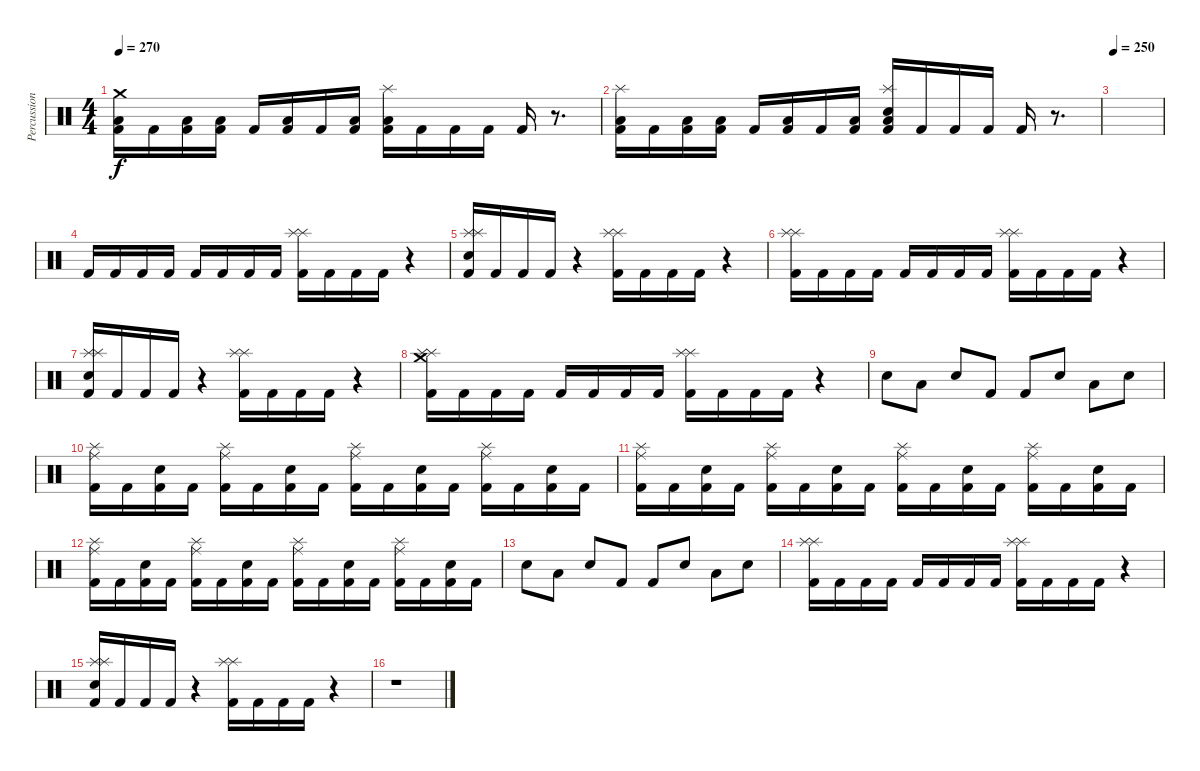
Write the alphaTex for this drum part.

\track ("Percussions" "Percussion") {instrument percussion}
\staff {score}
\articulation defaults
\ts (4 4)
\tempo 270
\clef neutral
\ks c
("Crash medium (hit)" "Low Floor Tom (hit)" "Kick (hit) 2").16{dy f} "Kick (hit) 2".16 ("Low Floor Tom (hit)" "Kick (hit) 2").16 ("Low Floor Tom (hit)" "Kick (hit) 2").16 "Kick (hit) 2".16 ("Low Floor Tom (hit)" "Kick (hit) 2").16 "Kick (hit) 2".16 ("Low Floor Tom (hit)" "Kick (hit) 2").16 ("Splash (hit)" "Low Floor Tom (hit)" "Kick (hit) 2").16 "Kick (hit) 2".16 "Kick (hit) 2".16 "Kick (hit) 2".16 "Kick (hit) 2".16 r.8{d} |
("Splash (hit)" "Low Floor Tom (hit)" "Kick (hit) 2").16 "Kick (hit) 2".16 ("Low Floor Tom (hit)" "Kick (hit) 2").16 ("Low Floor Tom (hit)" "Kick (hit) 2").16 "Kick (hit) 2".16 ("Low Floor Tom (hit)" "Kick (hit) 2").16 "Kick (hit) 2".16 ("Low Floor Tom (hit)" "Kick (hit) 2").16 ("Splash (hit)" "Electric Snare (hit)" "Low Floor Tom (hit)" "Kick (hit) 2").16 "Kick (hit) 2".16 "Kick (hit) 2".16 "Kick (hit) 2".16 "Kick (hit) 2".16 r.8{d} |
\tempo 250
|
"Kick (hit) 2".16 "Kick (hit) 2".16 "Kick (hit) 2".16 "Kick (hit) 2".16 "Kick (hit) 2".16 "Kick (hit) 2".16 "Kick (hit) 2".16 "Kick (hit) 2".16 ("Splash (hit)" "Splash (hit)" "Kick (hit) 2").16 "Kick (hit) 2".16 "Kick (hit) 2".16 "Kick (hit) 2".16 r.4 |
("Splash (hit)" "Splash (hit)" "Electric Snare (hit)" "Kick (hit) 2").16 "Kick (hit) 2".16 "Kick (hit) 2".16 "Kick (hit) 2".16 r.4 ("Splash (hit)" "Splash (hit)" "Kick (hit) 2").16 "Kick (hit) 2".16 "Kick (hit) 2".16 "Kick (hit) 2".16 r.4 |
("Splash (hit)" "Splash (hit)" "Kick (hit) 2").16 "Kick (hit) 2".16 "Kick (hit) 2".16 "Kick (hit) 2".16 "Kick (hit) 2".16 "Kick (hit) 2".16 "Kick (hit) 2".16 "Kick (hit) 2".16 ("Splash (hit)" "Splash (hit)" "Kick (hit) 2").16 "Kick (hit) 2".16 "Kick (hit) 2".16 "Kick (hit) 2".16 r.4 |
("Splash (hit)" "Splash (hit)" "Electric Snare (hit)" "Kick (hit) 2").16 "Kick (hit) 2".16 "Kick (hit) 2".16 "Kick (hit) 2".16 r.4 ("Splash (hit)" "Splash (hit)" "Kick (hit) 2").16 "Kick (hit) 2".16 "Kick (hit) 2".16 "Kick (hit) 2".16 r.4 |
("Splash (hit)" "Splash (hit)" "Crash medium (hit)" "Kick (hit) 2").16 "Kick (hit) 2".16 "Kick (hit) 2".16 "Kick (hit) 2".16 "Kick (hit) 2".16 "Kick (hit) 2".16 "Kick (hit) 2".16 "Kick (hit) 2".16 ("Splash (hit)" "Splash (hit)" "Kick (hit) 2").16 "Kick (hit) 2".16 "Kick (hit) 2".16 "Kick (hit) 2".16 r.4 |
"Electric Snare (hit)".8 "Low Floor Tom (hit)".8 "Electric Snare (hit)".8 "Kick (hit) 2".8 "Kick (hit) 2".8 "Electric Snare (hit)".8 "Low Floor Tom (hit)".8 "Electric Snare (hit)".8 |
("Splash (hit)" "Ride (middle)" "Kick (hit) 2").16 "Kick (hit) 2".16 ("Electric Snare (hit)" "Kick (hit) 2").16 "Kick (hit) 2".16 ("Splash (hit)" "Ride (middle)" "Kick (hit) 2").16 "Kick (hit) 2".16 ("Electric Snare (hit)" "Kick (hit) 2").16 "Kick (hit) 2".16 ("Splash (hit)" "Ride (middle)" "Kick (hit) 2").16 "Kick (hit) 2".16 ("Electric Snare (hit)" "Kick (hit) 2").16 "Kick (hit) 2".16 ("Splash (hit)" "Ride (middle)" "Kick (hit) 2").16 "Kick (hit) 2".16 ("Electric Snare (hit)" "Kick (hit) 2").16 "Kick (hit) 2".16 |
("Splash (hit)" "Ride (middle)" "Kick (hit) 2").16 "Kick (hit) 2".16 ("Electric Snare (hit)" "Kick (hit) 2").16 "Kick (hit) 2".16 ("Splash (hit)" "Ride (middle)" "Kick (hit) 2").16 "Kick (hit) 2".16 ("Electric Snare (hit)" "Kick (hit) 2").16 "Kick (hit) 2".16 ("Splash (hit)" "Ride (middle)" "Kick (hit) 2").16 "Kick (hit) 2".16 ("Electric Snare (hit)" "Kick (hit) 2").16 "Kick (hit) 2".16 ("Splash (hit)" "Ride (middle)" "Kick (hit) 2").16 "Kick (hit) 2".16 ("Electric Snare (hit)" "Kick (hit) 2").16 "Kick (hit) 2".16 |
("Splash (hit)" "Ride (middle)" "Kick (hit) 2").16 "Kick (hit) 2".16 ("Electric Snare (hit)" "Kick (hit) 2").16 "Kick (hit) 2".16 ("Splash (hit)" "Ride (middle)" "Kick (hit) 2").16 "Kick (hit) 2".16 ("Electric Snare (hit)" "Kick (hit) 2").16 "Kick (hit) 2".16 ("Splash (hit)" "Ride (middle)" "Kick (hit) 2").16 "Kick (hit) 2".16 ("Electric Snare (hit)" "Kick (hit) 2").16 "Kick (hit) 2".16 ("Splash (hit)" "Ride (middle)" "Kick (hit) 2").16 "Kick (hit) 2".16 ("Electric Snare (hit)" "Kick (hit) 2").16 "Kick (hit) 2".16 |
"Electric Snare (hit)".8 "Low Floor Tom (hit)".8 "Electric Snare (hit)".8 "Kick (hit) 2".8 "Kick (hit) 2".8 "Electric Snare (hit)".8 "Low Floor Tom (hit)".8 "Electric Snare (hit)".8 |
("Splash (hit)" "Splash (hit)" "Kick (hit) 2").16 "Kick (hit) 2".16 "Kick (hit) 2".16 "Kick (hit) 2".16 "Kick (hit) 2".16 "Kick (hit) 2".16 "Kick (hit) 2".16 "Kick (hit) 2".16 ("Splash (hit)" "Splash (hit)" "Kick (hit) 2").16 "Kick (hit) 2".16 "Kick (hit) 2".16 "Kick (hit) 2".16 r.4 |
("Splash (hit)" "Splash (hit)" "Electric Snare (hit)" "Kick (hit) 2").16 "Kick (hit) 2".16 "Kick (hit) 2".16 "Kick (hit) 2".16 r.4 ("Splash (hit)" "Splash (hit)" "Kick (hit) 2").16 "Kick (hit) 2".16 "Kick (hit) 2".16 "Kick (hit) 2".16 r.4 |
r.1
